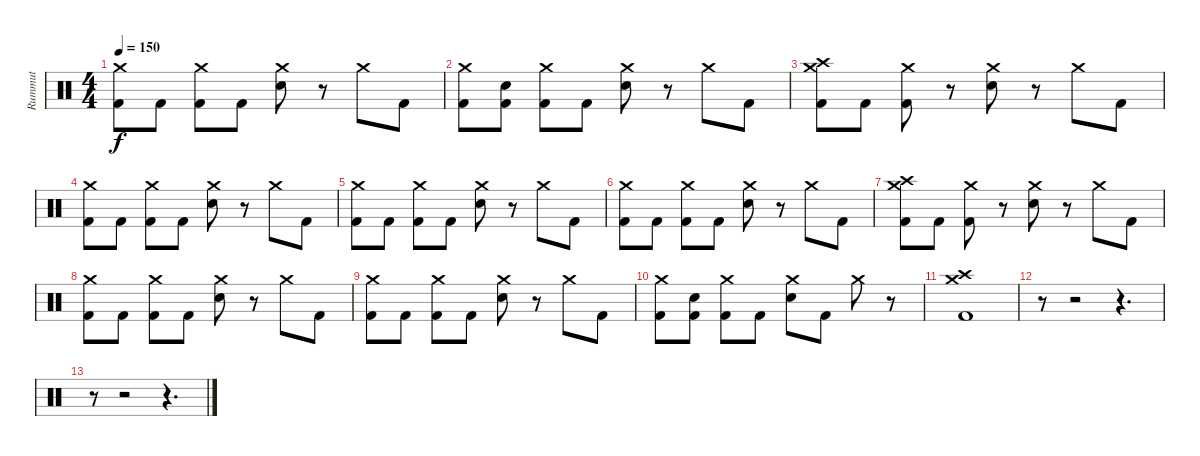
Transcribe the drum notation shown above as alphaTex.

\track ("Rummut" "Rummut") {instrument percussion}
\staff {score}
\articulation defaults
\ts (4 4)
\tempo 150
\clef neutral
\ks c
("Crash medium (hit)" "Kick (hit) 2").8{dy f} "Kick (hit) 2".8 ("Crash medium (hit)" "Kick (hit) 2").8 "Kick (hit) 2".8 ("Crash medium (hit)" "Snare (hit) 2").8 r.8 "Crash medium (hit)".8 "Kick (hit) 2".8 |
("Crash medium (hit)" "Kick (hit) 2").8 ("Snare (hit) 2" "Kick (hit) 2").8 ("Crash medium (hit)" "Kick (hit) 2").8 "Kick (hit) 2".8 ("Crash medium (hit)" "Snare (hit) 2").8 r.8 "Crash medium (hit)".8 "Kick (hit) 2".8 |
("Crash high (hit)" "Crash medium (hit)" "Kick (hit) 2").8 "Kick (hit) 2".8 ("Crash medium (hit)" "Kick (hit) 2").8 r.8 ("Crash medium (hit)" "Snare (hit) 2").8 r.8 "Crash medium (hit)".8 "Kick (hit) 2".8 |
("Crash medium (hit)" "Kick (hit) 2").8 "Kick (hit) 2".8 ("Crash medium (hit)" "Kick (hit) 2").8 "Kick (hit) 2".8 ("Crash medium (hit)" "Snare (hit) 2").8 r.8 "Crash medium (hit)".8 "Kick (hit) 2".8 |
("Crash medium (hit)" "Kick (hit) 2").8 "Kick (hit) 2".8 ("Crash medium (hit)" "Kick (hit) 2").8 "Kick (hit) 2".8 ("Crash medium (hit)" "Snare (hit) 2").8 r.8 "Crash medium (hit)".8 "Kick (hit) 2".8 |
("Crash medium (hit)" "Kick (hit) 2").8 "Kick (hit) 2".8 ("Crash medium (hit)" "Kick (hit) 2").8 "Kick (hit) 2".8 ("Crash medium (hit)" "Snare (hit) 2").8 r.8 "Crash medium (hit)".8 "Kick (hit) 2".8 |
("Crash high (hit)" "Crash medium (hit)" "Kick (hit) 2").8 "Kick (hit) 2".8 ("Crash medium (hit)" "Kick (hit) 2").8 r.8 ("Crash medium (hit)" "Snare (hit) 2").8 r.8 "Crash medium (hit)".8 "Kick (hit) 2".8 |
("Crash medium (hit)" "Kick (hit) 2").8 "Kick (hit) 2".8 ("Crash medium (hit)" "Kick (hit) 2").8 "Kick (hit) 2".8 ("Crash medium (hit)" "Snare (hit) 2").8 r.8 "Crash medium (hit)".8 "Kick (hit) 2".8 |
("Crash medium (hit)" "Kick (hit) 2").8 "Kick (hit) 2".8 ("Crash medium (hit)" "Kick (hit) 2").8 "Kick (hit) 2".8 ("Crash medium (hit)" "Snare (hit) 2").8 r.8 "Crash medium (hit)".8 "Kick (hit) 2".8 |
("Crash medium (hit)" "Kick (hit) 2").8 ("Snare (hit) 2" "Kick (hit) 2").8 ("Crash medium (hit)" "Kick (hit) 2").8 "Kick (hit) 2".8 ("Crash medium (hit)" "Snare (hit) 2").8 "Kick (hit) 2".8 "Crash medium (hit)".8 r.8 |
("Crash medium (hit)" "Crash high (hit)" "Kick (hit) 2").1 |
r.8 r.2 r.4{d} |
r.8 r.2 r.4{d}
